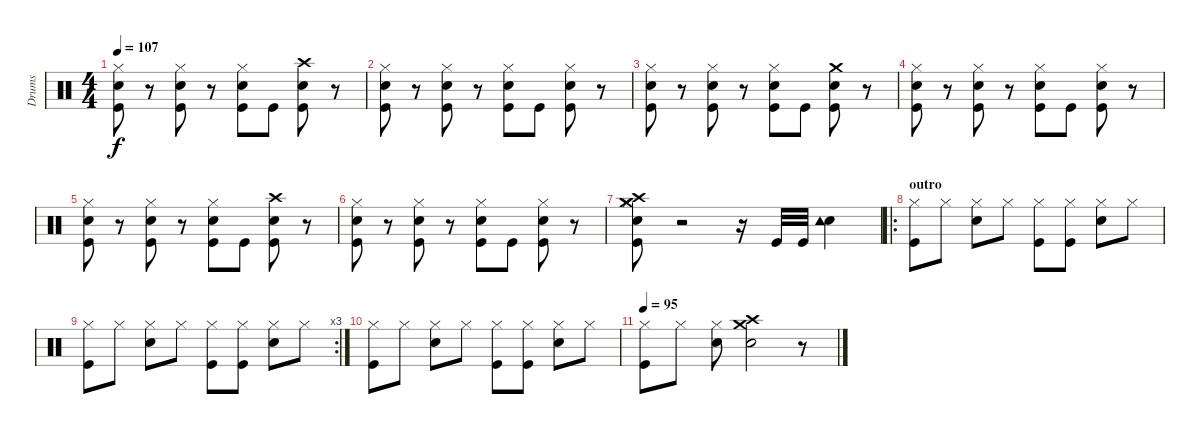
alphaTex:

\track ("Drums" "Drums") {instrument percussion}
\staff {score}
\articulation defaults
\ts (4 4)
\tempo 107
\clef neutral
\ks c
("Kick (hit)" "Electric Snare (hit)" "Hi-Hat (closed)").8{dy f} r.8 ("Kick (hit)" "Electric Snare (hit)" "Hi-Hat (closed)").8 r.8 ("Kick (hit)" "Electric Snare (hit)" "Hi-Hat (closed)").8 "Kick (hit)".8 ("Kick (hit)" "Electric Snare (hit)" "Crash high (hit)").8 r.8 |
("Kick (hit)" "Electric Snare (hit)" "Hi-Hat (closed)").8 r.8 ("Kick (hit)" "Electric Snare (hit)" "Hi-Hat (closed)").8 r.8 ("Kick (hit)" "Electric Snare (hit)" "Hi-Hat (closed)").8 "Kick (hit)".8 ("Kick (hit)" "Electric Snare (hit)" "Hi-Hat (closed)").8 r.8 |
("Kick (hit)" "Electric Snare (hit)" "Hi-Hat (closed)").8 r.8 ("Kick (hit)" "Electric Snare (hit)" "Hi-Hat (closed)").8 r.8 ("Kick (hit)" "Electric Snare (hit)" "Hi-Hat (closed)").8 "Kick (hit)".8 ("Kick (hit)" "Electric Snare (hit)" "Crash medium (hit)").8 r.8 |
("Kick (hit)" "Electric Snare (hit)" "Hi-Hat (closed)").8 r.8 ("Kick (hit)" "Electric Snare (hit)" "Hi-Hat (closed)").8 r.8 ("Kick (hit)" "Electric Snare (hit)" "Hi-Hat (closed)").8 "Kick (hit)".8 ("Kick (hit)" "Electric Snare (hit)" "Hi-Hat (closed)").8 r.8 |
("Kick (hit)" "Electric Snare (hit)" "Hi-Hat (closed)").8 r.8 ("Kick (hit)" "Electric Snare (hit)" "Hi-Hat (closed)").8 r.8 ("Kick (hit)" "Electric Snare (hit)" "Hi-Hat (closed)").8 "Kick (hit)".8 ("Kick (hit)" "Electric Snare (hit)" "Crash high (hit)").8 r.8 |
("Kick (hit)" "Electric Snare (hit)" "Hi-Hat (closed)").8 r.8 ("Kick (hit)" "Electric Snare (hit)" "Hi-Hat (closed)").8 r.8 ("Kick (hit)" "Electric Snare (hit)" "Hi-Hat (closed)").8 "Kick (hit)".8 ("Kick (hit)" "Electric Snare (hit)" "Hi-Hat (closed)").8 r.8 |
("Kick (hit)" "Electric Snare (hit)" "Hi-Hat (closed)" "Crash high (hit)" "Crash medium (hit)").8 r.2 r.16 "Kick (hit)".32 "Kick (hit)".32 ("Electric Snare (hit)" "Tambourine (hit)").4 |
\ro
\section ("" "outro")
("Kick (hit)" "Hi-Hat (closed)").8 "Hi-Hat (closed)".8 ("Electric Snare (hit)" "Hi-Hat (closed)").8 "Hi-Hat (closed)".8 ("Kick (hit)" "Hi-Hat (closed)").8 ("Kick (hit)" "Hi-Hat (closed)").8 ("Electric Snare (hit)" "Hi-Hat (closed)").8 "Hi-Hat (closed)".8 |
\rc 3
("Kick (hit)" "Hi-Hat (closed)").8 "Hi-Hat (closed)".8 ("Electric Snare (hit)" "Hi-Hat (closed)").8 "Hi-Hat (closed)".8 ("Kick (hit)" "Hi-Hat (closed)").8 ("Kick (hit)" "Hi-Hat (closed)").8 ("Electric Snare (hit)" "Hi-Hat (closed)").8 "Hi-Hat (closed)".8 |
("Kick (hit)" "Hi-Hat (closed)").8 "Hi-Hat (closed)".8 ("Electric Snare (hit)" "Hi-Hat (closed)").8 "Hi-Hat (closed)".8 ("Kick (hit)" "Hi-Hat (closed)").8 ("Kick (hit)" "Hi-Hat (closed)").8 ("Electric Snare (hit)" "Hi-Hat (closed)").8 "Hi-Hat (closed)".8 |
\tempo 95
("Kick (hit)" "Hi-Hat (closed)").8 "Hi-Hat (closed)".8 ("Electric Snare (hit)" "Hi-Hat (closed)").8 ("Electric Snare (hit)" "Crash medium (hit)" "Crash high (hit)").2 r.8
